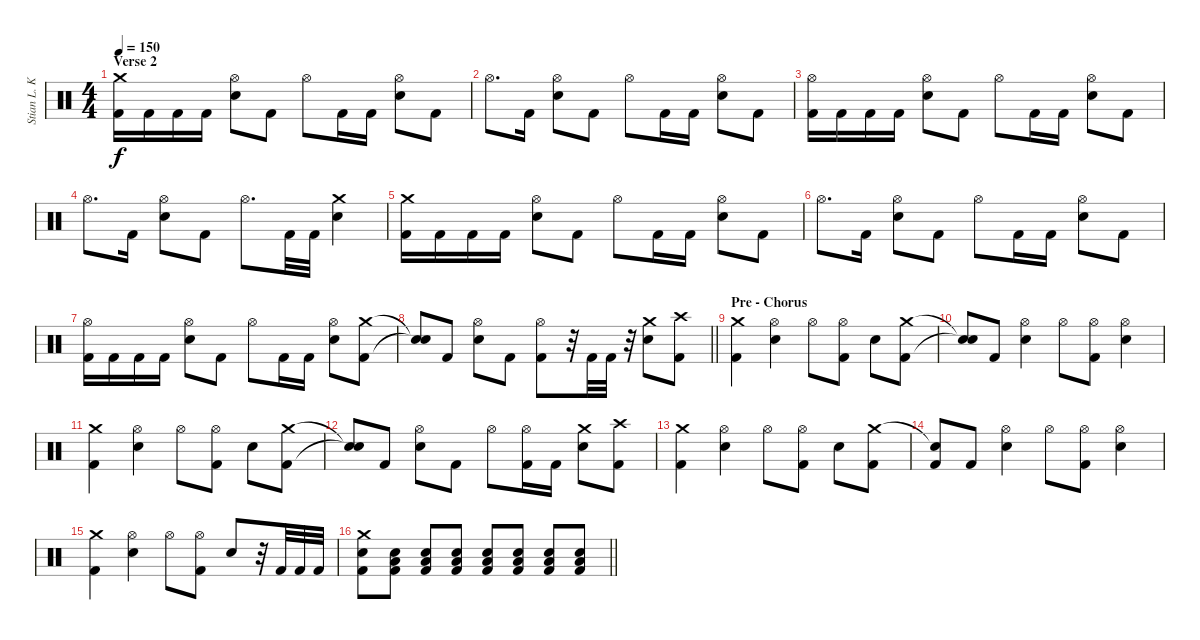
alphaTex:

\track ("Stian L. Kristoffersen" "Stian L. K") {instrument percussion}
\staff {score}
\articulation defaults
\ts (4 4)
\section ("" "Verse 2")
\tempo 150
\clef neutral
\ks c
("Crash medium (hit)" "Kick (hit) 2").16{dy f} "Kick (hit) 2".16 "Kick (hit) 2".16 "Kick (hit) 2".16 ("Hi-Hat (open)" "Electric Snare (hit)").8 "Kick (hit) 2".8 "Hi-Hat (open)".8 "Kick (hit) 2".16 "Kick (hit) 2".16 ("Hi-Hat (open)" "Electric Snare (hit)").8 "Kick (hit) 2".8 |
"Hi-Hat (open)".8{d} "Kick (hit) 2".16 ("Hi-Hat (open)" "Electric Snare (hit)").8 "Kick (hit) 2".8 "Hi-Hat (open)".8 "Kick (hit) 2".16 "Kick (hit) 2".16 ("Hi-Hat (open)" "Electric Snare (hit)").8 "Kick (hit) 2".8 |
("Hi-Hat (open)" "Kick (hit) 2").16 "Kick (hit) 2".16 "Kick (hit) 2".16 "Kick (hit) 2".16 ("Hi-Hat (open)" "Electric Snare (hit)").8 "Kick (hit) 2".8 "Hi-Hat (open)".8 "Kick (hit) 2".16 "Kick (hit) 2".16 ("Hi-Hat (open)" "Electric Snare (hit)").8 "Kick (hit) 2".8 |
"Hi-Hat (open)".8{d} "Kick (hit) 2".16 ("Hi-Hat (open)" "Electric Snare (hit)").8 "Kick (hit) 2".8 "Hi-Hat (open)".8{d} "Kick (hit) 2".32 "Kick (hit) 2".32 ("Crash medium (hit)" "Electric Snare (hit)").4 |
("Crash medium (hit)" "Kick (hit) 2").16 "Kick (hit) 2".16 "Kick (hit) 2".16 "Kick (hit) 2".16 ("Hi-Hat (open)" "Electric Snare (hit)").8 "Kick (hit) 2".8 "Hi-Hat (open)".8 "Kick (hit) 2".16 "Kick (hit) 2".16 ("Hi-Hat (open)" "Electric Snare (hit)").8 "Kick (hit) 2".8 |
"Hi-Hat (open)".8{d} "Kick (hit) 2".16 ("Hi-Hat (open)" "Electric Snare (hit)").8 "Kick (hit) 2".8 "Hi-Hat (open)".8 "Kick (hit) 2".16 "Kick (hit) 2".16 ("Hi-Hat (open)" "Electric Snare (hit)").8 "Kick (hit) 2".8 |
("Hi-Hat (open)" "Kick (hit) 2").16 "Kick (hit) 2".16 "Kick (hit) 2".16 "Kick (hit) 2".16 ("Hi-Hat (open)" "Electric Snare (hit)").8 "Kick (hit) 2".8 "Hi-Hat (open)".8 "Kick (hit) 2".16 "Kick (hit) 2".16 ("Hi-Hat (open)" "Electric Snare (hit)").8 ("Crash medium (hit)" "Kick (hit) 2").8 |
\barLineRight lightlight
("Snare (hit)"{t} "Snare (hit)"{t}).8 "Kick (hit) 2".8 ("Hi-Hat (open)" "Electric Snare (hit)").8 "Kick (hit) 2".8 ("Hi-Hat (open)" "Kick (hit) 2").8 r.32 "Kick (hit) 2".32 "Kick (hit) 2".32 r.32 ("Crash medium (hit)" "Electric Snare (hit)").8 ("Crash high (hit)" "Kick (hit) 2").8 |
\section ("" "Pre - Chorus")
("Crash medium (hit)" "Kick (hit) 2").4 ("Hi-Hat (open)" "Electric Snare (hit)").4 "Hi-Hat (open)".8 ("Hi-Hat (open)" "Kick (hit) 2").8 "Electric Snare (hit)".8 ("Crash medium (hit)" "Kick (hit) 2").8 |
("Snare (hit)"{t} "Snare (hit)"{t}).8 "Kick (hit) 2".8 ("Hi-Hat (open)" "Electric Snare (hit)").4 "Hi-Hat (open)".8 ("Hi-Hat (open)" "Kick (hit) 2").8 ("Hi-Hat (open)" "Electric Snare (hit)").4 |
("Crash medium (hit)" "Kick (hit) 2").4 ("Hi-Hat (open)" "Electric Snare (hit)").4 "Hi-Hat (open)".8 ("Hi-Hat (open)" "Kick (hit) 2").8 "Electric Snare (hit)".8 ("Crash medium (hit)" "Kick (hit) 2").8 |
("Snare (hit)"{t} "Snare (hit)"{t}).8 "Kick (hit) 2".8 ("Hi-Hat (open)" "Electric Snare (hit)").8 "Kick (hit) 2".8 "Hi-Hat (open)".8 ("Hi-Hat (open)" "Kick (hit) 2").16 "Kick (hit) 2".16 ("Crash medium (hit)" "Electric Snare (hit)").8 ("Crash high (hit)" "Kick (hit) 2").8 |
("Crash medium (hit)" "Kick (hit) 2").4 ("Hi-Hat (open)" "Electric Snare (hit)").4 "Hi-Hat (open)".8 ("Hi-Hat (open)" "Kick (hit) 2").8 "Electric Snare (hit)".8 ("Crash medium (hit)" "Kick (hit) 2").8 |
("Snare (hit)"{t} "Kick (hit) 2").8 "Kick (hit) 2".8 ("Hi-Hat (open)" "Electric Snare (hit)").4 "Hi-Hat (open)".8 ("Hi-Hat (open)" "Kick (hit) 2").8 ("Hi-Hat (open)" "Electric Snare (hit)").4 |
("Crash medium (hit)" "Kick (hit) 2").4 ("Hi-Hat (open)" "Electric Snare (hit)").4 "Hi-Hat (open)".8 ("Hi-Hat (open)" "Kick (hit) 2").8 "Electric Snare (hit)".8 r.32 "Kick (hit) 2".32 "Kick (hit) 2".32 "Kick (hit) 2".32 |
\barLineRight lightlight
("Crash medium (hit)" "Electric Snare (hit)" "Kick (hit) 2").8 ("Electric Snare (hit)" "Low Floor Tom (hit)" "Kick (hit) 2").8 ("Electric Snare (hit)" "Low Floor Tom (hit)" "Kick (hit) 2").8 ("Electric Snare (hit)" "Low Floor Tom (hit)" "Kick (hit) 2").8 ("Electric Snare (hit)" "Low Floor Tom (hit)" "Kick (hit) 2").8 ("Electric Snare (hit)" "Low Floor Tom (hit)" "Kick (hit) 2").8 ("Electric Snare (hit)" "Low Floor Tom (hit)" "Kick (hit) 2").8 ("Electric Snare (hit)" "Low Floor Tom (hit)" "Kick (hit) 2").8
